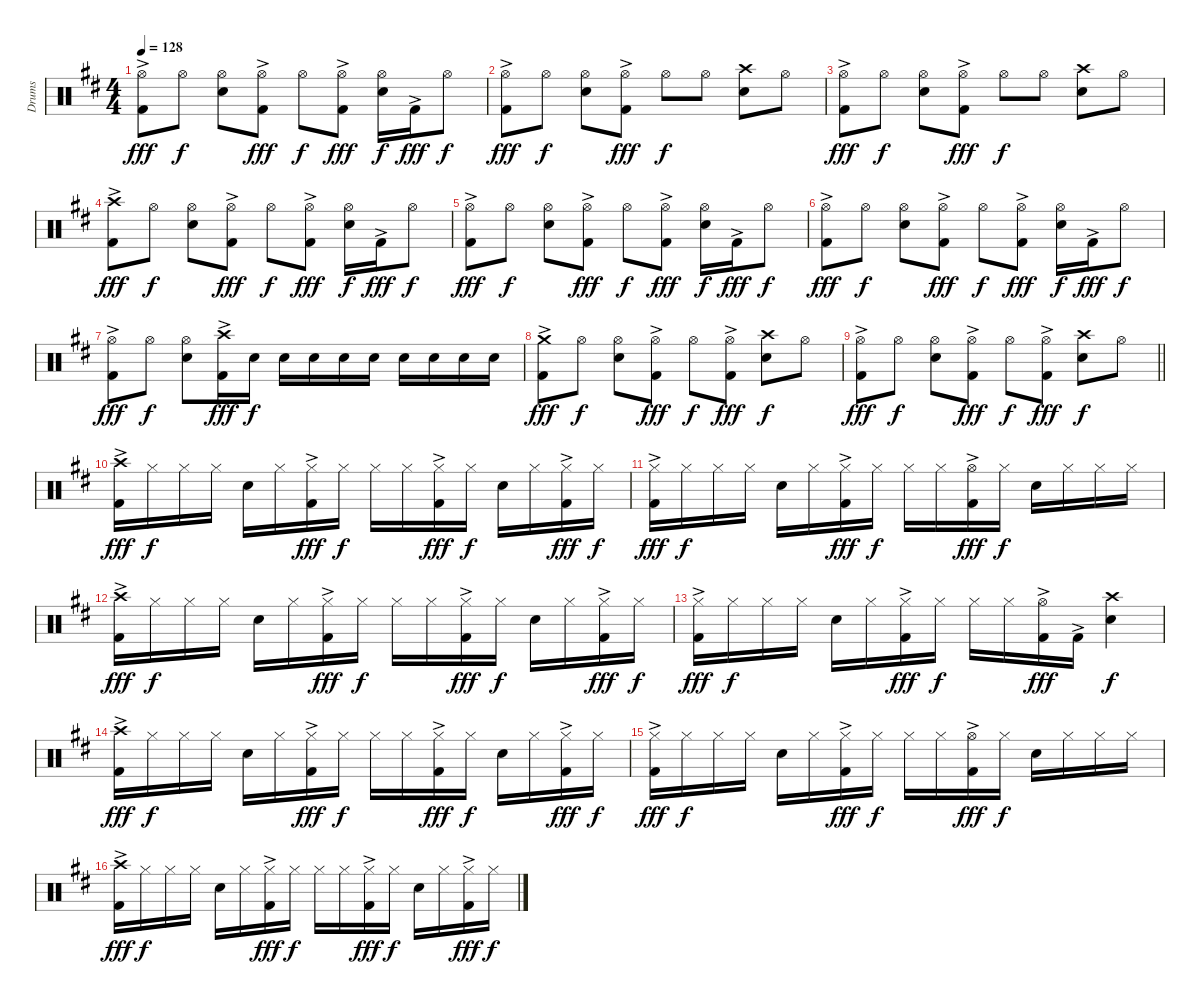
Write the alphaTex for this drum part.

\track ("Drums" "Drums") {instrument percussion}
\staff {score}
\articulation defaults
\ts (4 4)
\tempo 128
\clef neutral
\ks d
("Hi-Hat (open)" "Kick (hit) 2"{ac}).8{dy fff} "Hi-Hat (open)".8{dy f} ("Hi-Hat (open)" "Snare (hit) 2").8 ("Hi-Hat (open)" "Kick (hit) 2"{ac}).8{dy fff} "Hi-Hat (open)".8{dy f} ("Hi-Hat (open)" "Kick (hit) 2"{ac}).8{dy fff} ("Hi-Hat (open)" "Snare (hit) 2").16{dy f} "Kick (hit) 2"{ac}.16{dy fff} "Hi-Hat (open)".8{dy f} |
("Hi-Hat (open)" "Kick (hit) 2"{ac}).8{dy fff} "Hi-Hat (open)".8{dy f} ("Hi-Hat (open)" "Snare (hit) 2").8 ("Hi-Hat (open)" "Kick (hit) 2"{ac}).8{dy fff} "Hi-Hat (open)".8{dy f} "Hi-Hat (open)".8 ("Crash high (hit)" "Snare (hit) 2").8 "Hi-Hat (open)".8 |
("Hi-Hat (open)" "Kick (hit) 2"{ac}).8{dy fff} "Hi-Hat (open)".8{dy f} ("Hi-Hat (open)" "Snare (hit) 2").8 ("Hi-Hat (open)" "Kick (hit) 2"{ac}).8{dy fff} "Hi-Hat (open)".8{dy f} "Hi-Hat (open)".8 ("Crash high (hit)" "Snare (hit) 2").8 "Hi-Hat (open)".8 |
("Crash high (hit)" "Kick (hit) 2"{ac}).8{dy fff} "Hi-Hat (open)".8{dy f} ("Hi-Hat (open)" "Snare (hit) 2").8 ("Hi-Hat (open)" "Kick (hit) 2"{ac}).8{dy fff} "Hi-Hat (open)".8{dy f} ("Hi-Hat (open)" "Kick (hit) 2"{ac}).8{dy fff} ("Hi-Hat (open)" "Snare (hit) 2").16{dy f} "Kick (hit) 2"{ac}.16{dy fff} "Hi-Hat (open)".8{dy f} |
("Hi-Hat (open)" "Kick (hit) 2"{ac}).8{dy fff} "Hi-Hat (open)".8{dy f} ("Hi-Hat (open)" "Snare (hit) 2").8 ("Hi-Hat (open)" "Kick (hit) 2"{ac}).8{dy fff} "Hi-Hat (open)".8{dy f} ("Hi-Hat (open)" "Kick (hit) 2"{ac}).8{dy fff} ("Hi-Hat (open)" "Snare (hit) 2").16{dy f} "Kick (hit) 2"{ac}.16{dy fff} "Hi-Hat (open)".8{dy f} |
("Hi-Hat (open)" "Kick (hit) 2"{ac}).8{dy fff} "Hi-Hat (open)".8{dy f} ("Hi-Hat (open)" "Snare (hit) 2").8 ("Hi-Hat (open)" "Kick (hit) 2"{ac}).8{dy fff} "Hi-Hat (open)".8{dy f} ("Hi-Hat (open)" "Kick (hit) 2"{ac}).8{dy fff} ("Hi-Hat (open)" "Snare (hit) 2").16{dy f} "Kick (hit) 2"{ac}.16{dy fff} "Hi-Hat (open)".8{dy f} |
("Hi-Hat (open)" "Kick (hit) 2"{ac}).8{dy fff} "Hi-Hat (open)".8{dy f} ("Hi-Hat (open)" "Snare (hit) 2").8 ("Crash high (hit)" "Kick (hit) 2"{ac}).16{dy fff} "Snare (hit) 2".16{dy f} "Snare (hit) 2".16 "Snare (hit) 2".16 "Snare (hit) 2".16 "Snare (hit) 2".16 "Snare (hit) 2".16 "Snare (hit) 2".16 "Snare (hit) 2".16 "Snare (hit) 2".16 |
("Crash medium (hit)" "Kick (hit) 2"{ac}).8{dy fff} "Hi-Hat (open)".8{dy f} ("Hi-Hat (open)" "Snare (hit) 2").8 ("Hi-Hat (open)" "Kick (hit) 2"{ac}).8{dy fff} "Hi-Hat (open)".8{dy f} ("Hi-Hat (open)" "Kick (hit) 2"{ac}).8{dy fff} ("Crash high (hit)" "Snare (hit) 2").8{dy f} "Hi-Hat (open)".8 |
\barLineRight lightlight
("Hi-Hat (open)" "Kick (hit) 2"{ac}).8{dy fff} "Hi-Hat (open)".8{dy f} ("Hi-Hat (open)" "Snare (hit) 2").8 ("Hi-Hat (open)" "Kick (hit) 2"{ac}).8{dy fff} "Hi-Hat (open)".8{dy f} ("Hi-Hat (open)" "Kick (hit) 2"{ac}).8{dy fff} ("Crash high (hit)" "Snare (hit) 2").8{dy f} "Hi-Hat (open)".8 |
("Crash high (hit)" "Kick (hit) 2"{ac}).16{dy fff} "Hi-Hat (closed)".16{dy f} "Hi-Hat (closed)".16 "Hi-Hat (closed)".16 "Snare (hit) 2".16 "Hi-Hat (closed)".16 ("Hi-Hat (closed)" "Kick (hit) 2"{ac}).16{dy fff} "Hi-Hat (closed)".16{dy f} "Hi-Hat (closed)".16 "Hi-Hat (closed)".16 ("Hi-Hat (closed)" "Kick (hit) 2"{ac}).16{dy fff} "Hi-Hat (closed)".16{dy f} "Snare (hit) 2".16 "Hi-Hat (closed)".16 ("Hi-Hat (closed)" "Kick (hit) 2"{ac}).16{dy fff} "Hi-Hat (closed)".16{dy f} |
("Hi-Hat (closed)" "Kick (hit) 2"{ac}).16{dy fff} "Hi-Hat (closed)".16{dy f} "Hi-Hat (closed)".16 "Hi-Hat (closed)".16 "Snare (hit) 2".16 "Hi-Hat (closed)".16 ("Hi-Hat (closed)" "Kick (hit) 2"{ac}).16{dy fff} "Hi-Hat (closed)".16{dy f} "Hi-Hat (closed)".16 "Hi-Hat (closed)".16 ("Hi-Hat (open)" "Kick (hit) 2"{ac}).16{dy fff} "Hi-Hat (closed)".16{dy f} "Snare (hit) 2".16 "Hi-Hat (closed)".16 "Hi-Hat (closed)".16 "Hi-Hat (closed)".16 |
("Crash high (hit)" "Kick (hit) 2"{ac}).16{dy fff} "Hi-Hat (closed)".16{dy f} "Hi-Hat (closed)".16 "Hi-Hat (closed)".16 "Snare (hit) 2".16 "Hi-Hat (closed)".16 ("Hi-Hat (closed)" "Kick (hit) 2"{ac}).16{dy fff} "Hi-Hat (closed)".16{dy f} "Hi-Hat (closed)".16 "Hi-Hat (closed)".16 ("Hi-Hat (closed)" "Kick (hit) 2"{ac}).16{dy fff} "Hi-Hat (closed)".16{dy f} "Snare (hit) 2".16 "Hi-Hat (closed)".16 ("Hi-Hat (closed)" "Kick (hit) 2"{ac}).16{dy fff} "Hi-Hat (closed)".16{dy f} |
("Hi-Hat (closed)" "Kick (hit) 2"{ac}).16{dy fff} "Hi-Hat (closed)".16{dy f} "Hi-Hat (closed)".16 "Hi-Hat (closed)".16 "Snare (hit) 2".16 "Hi-Hat (closed)".16 ("Hi-Hat (closed)" "Kick (hit) 2"{ac}).16{dy fff} "Hi-Hat (closed)".16{dy f} "Hi-Hat (closed)".16 "Hi-Hat (closed)".16 ("Hi-Hat (open)" "Kick (hit) 2"{ac}).16{dy fff} "Kick (hit) 2"{ac}.16 ("Crash high (hit)" "Snare (hit) 2").4{dy f} |
("Crash high (hit)" "Kick (hit) 2"{ac}).16{dy fff} "Hi-Hat (closed)".16{dy f} "Hi-Hat (closed)".16 "Hi-Hat (closed)".16 "Snare (hit) 2".16 "Hi-Hat (closed)".16 ("Hi-Hat (closed)" "Kick (hit) 2"{ac}).16{dy fff} "Hi-Hat (closed)".16{dy f} "Hi-Hat (closed)".16 "Hi-Hat (closed)".16 ("Hi-Hat (closed)" "Kick (hit) 2"{ac}).16{dy fff} "Hi-Hat (closed)".16{dy f} "Snare (hit) 2".16 "Hi-Hat (closed)".16 ("Hi-Hat (closed)" "Kick (hit) 2"{ac}).16{dy fff} "Hi-Hat (closed)".16{dy f} |
("Hi-Hat (closed)" "Kick (hit) 2"{ac}).16{dy fff} "Hi-Hat (closed)".16{dy f} "Hi-Hat (closed)".16 "Hi-Hat (closed)".16 "Snare (hit) 2".16 "Hi-Hat (closed)".16 ("Hi-Hat (closed)" "Kick (hit) 2"{ac}).16{dy fff} "Hi-Hat (closed)".16{dy f} "Hi-Hat (closed)".16 "Hi-Hat (closed)".16 ("Hi-Hat (open)" "Kick (hit) 2"{ac}).16{dy fff} "Hi-Hat (closed)".16{dy f} "Snare (hit) 2".16 "Hi-Hat (closed)".16 "Hi-Hat (closed)".16 "Hi-Hat (closed)".16 |
("Crash high (hit)" "Kick (hit) 2"{ac}).16{dy fff} "Hi-Hat (closed)".16{dy f} "Hi-Hat (closed)".16 "Hi-Hat (closed)".16 "Snare (hit) 2".16 "Hi-Hat (closed)".16 ("Hi-Hat (closed)" "Kick (hit) 2"{ac}).16{dy fff} "Hi-Hat (closed)".16{dy f} "Hi-Hat (closed)".16 "Hi-Hat (closed)".16 ("Hi-Hat (closed)" "Kick (hit) 2"{ac}).16{dy fff} "Hi-Hat (closed)".16{dy f} "Snare (hit) 2".16 "Hi-Hat (closed)".16 ("Hi-Hat (closed)" "Kick (hit) 2"{ac}).16{dy fff} "Hi-Hat (closed)".16{dy f}
